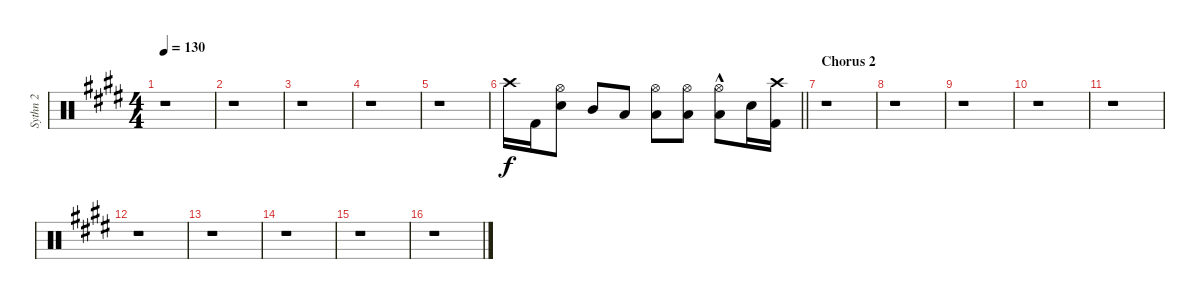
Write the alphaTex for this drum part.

\track ("Sythn 2" "Sythn 2") {instrument percussion}
\staff {score}
\articulation defaults
\ts (4 4)
\tempo 130
\clef neutral
\ks e
r.1{dy f} |
r.1 |
r.1 |
r.1 |
r.1 |
\barLineRight lightlight "Crash high (hit)".16 "Kick (hit) 2".16
("Hi-Hat (open)" "Snare (hit) 2").8 "Mid Tom (hit)".8 "Low Tom (hit)".8 ("Hi-Hat (open)" "Low Tom (hit)").8 ("Hi-Hat (open)" "Low Tom (hit)").8 ("Hi-Hat (open)" "Low Tom (hit)"{hac}).8 "Snare (hit) 2".16 ("Crash high (hit)" "Kick (hit) 2").16 |
\section ("" "Chorus 2")
r.1 |
r.1 |
r.1 |
r.1 |
r.1 |
r.1 |
r.1 |
r.1 |
r.1 |
r.1
